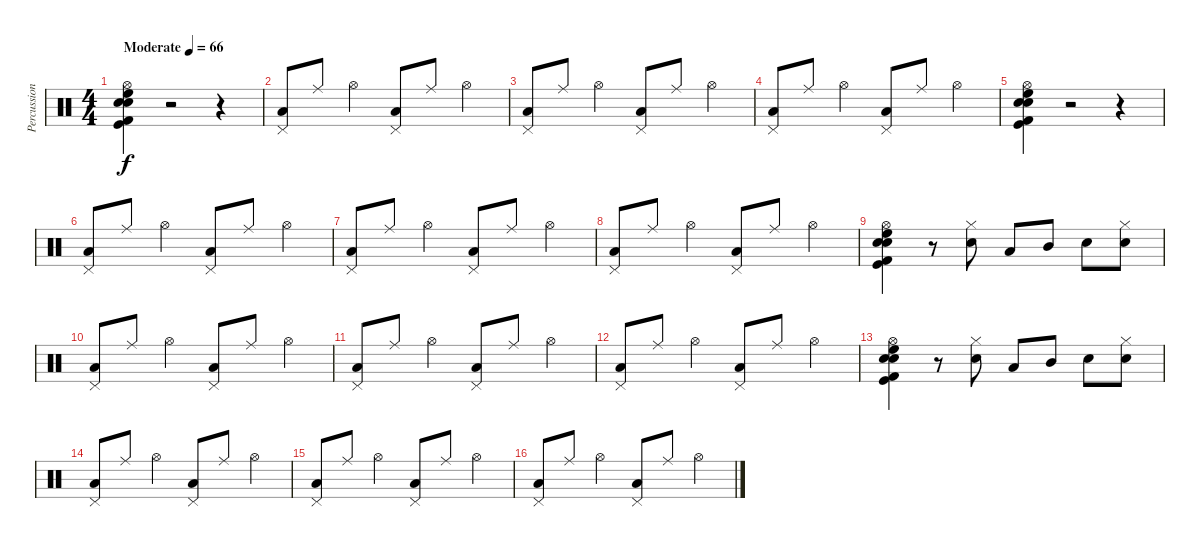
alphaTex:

\track ("Percussions" "Percussion") {instrument percussion}
\staff {score}
\articulation defaults
\ts (4 4)
\tempo (66 "Moderate")
\clef neutral
\ks c
("Electric Snare (hit)" "Kick (hit) 2" "Snare (hit) 2" "High Floor Tom (hit)" "Kick (hit)" "Hi-Hat (open)").4{dy f} r.2 r.4 |
("Pedal Hi-Hat (hit)" "Low Tom (hit)").8 "Ride (middle)".8 "Hi-Hat (open)".4 ("Pedal Hi-Hat (hit)" "Low Tom (hit)").8 "Ride (middle)".8 "Hi-Hat (open)".4 |
("Pedal Hi-Hat (hit)" "Low Tom (hit)").8 "Ride (middle)".8 "Hi-Hat (open)".4 ("Pedal Hi-Hat (hit)" "Low Tom (hit)").8 "Ride (middle)".8 "Hi-Hat (open)".4 |
("Pedal Hi-Hat (hit)" "Low Tom (hit)").8 "Ride (middle)".8 "Hi-Hat (open)".4 ("Pedal Hi-Hat (hit)" "Low Tom (hit)").8 "Ride (middle)".8 "Hi-Hat (open)".4 |
("Electric Snare (hit)" "Kick (hit) 2" "Snare (hit) 2" "High Floor Tom (hit)" "Kick (hit)" "Hi-Hat (open)").4 r.2 r.4 |
("Pedal Hi-Hat (hit)" "Low Tom (hit)").8 "Ride (middle)".8 "Hi-Hat (open)".4 ("Pedal Hi-Hat (hit)" "Low Tom (hit)").8 "Ride (middle)".8 "Hi-Hat (open)".4 |
("Pedal Hi-Hat (hit)" "Low Tom (hit)").8 "Ride (middle)".8 "Hi-Hat (open)".4 ("Pedal Hi-Hat (hit)" "Low Tom (hit)").8 "Ride (middle)".8 "Hi-Hat (open)".4 |
("Pedal Hi-Hat (hit)" "Low Tom (hit)").8 "Ride (middle)".8 "Hi-Hat (open)".4 ("Pedal Hi-Hat (hit)" "Low Tom (hit)").8 "Ride (middle)".8 "Hi-Hat (open)".4 |
("Electric Snare (hit)" "Kick (hit) 2" "Snare (hit) 2" "High Floor Tom (hit)" "Kick (hit)" "Hi-Hat (open)").4 r.8 ("Hi-Hat (closed)" "Electric Snare (hit)").8 "Low Tom (hit)".8 "Mid Tom (hit)".8 "Snare (hit) 2".8 ("Hi-Hat (closed)" "Electric Snare (hit)").8 |
("Pedal Hi-Hat (hit)" "Low Tom (hit)").8 "Ride (middle)".8 "Hi-Hat (open)".4 ("Pedal Hi-Hat (hit)" "Low Tom (hit)").8 "Ride (middle)".8 "Hi-Hat (open)".4 |
("Pedal Hi-Hat (hit)" "Low Tom (hit)").8 "Ride (middle)".8 "Hi-Hat (open)".4 ("Pedal Hi-Hat (hit)" "Low Tom (hit)").8 "Ride (middle)".8 "Hi-Hat (open)".4 |
("Pedal Hi-Hat (hit)" "Low Tom (hit)").8 "Ride (middle)".8 "Hi-Hat (open)".4 ("Pedal Hi-Hat (hit)" "Low Tom (hit)").8 "Ride (middle)".8 "Hi-Hat (open)".4 |
("Electric Snare (hit)" "Kick (hit) 2" "Snare (hit) 2" "High Floor Tom (hit)" "Kick (hit)" "Hi-Hat (open)").4 r.8 ("Hi-Hat (closed)" "Electric Snare (hit)").8 "Low Tom (hit)".8 "Mid Tom (hit)".8 "Snare (hit) 2".8 ("Hi-Hat (closed)" "Electric Snare (hit)").8 |
("Pedal Hi-Hat (hit)" "Low Tom (hit)").8 "Ride (middle)".8 "Hi-Hat (open)".4 ("Pedal Hi-Hat (hit)" "Low Tom (hit)").8 "Ride (middle)".8 "Hi-Hat (open)".4 |
("Pedal Hi-Hat (hit)" "Low Tom (hit)").8 "Ride (middle)".8 "Hi-Hat (open)".4 ("Pedal Hi-Hat (hit)" "Low Tom (hit)").8 "Ride (middle)".8 "Hi-Hat (open)".4 |
("Pedal Hi-Hat (hit)" "Low Tom (hit)").8 "Ride (middle)".8 "Hi-Hat (open)".4 ("Pedal Hi-Hat (hit)" "Low Tom (hit)").8 "Ride (middle)".8 "Hi-Hat (open)".4
